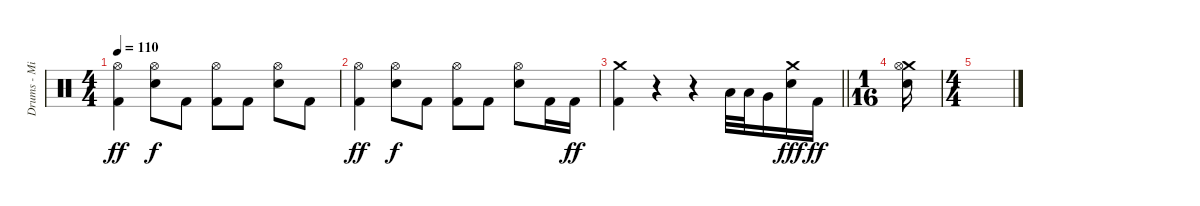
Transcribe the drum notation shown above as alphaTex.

\track ("Drums - Mikko" "Drums - Mi") {instrument percussion}
\staff {score}
\articulation defaults
\ts (4 4)
\tempo 110
\clef neutral
\ks c
("Hi-Hat (open)" "Kick (hit) 2").4{dy ff} ("Hi-Hat (open)" "Snare (hit) 2").8{dy f} "Kick (hit) 2".8 ("Hi-Hat (open)" "Kick (hit) 2").8 "Kick (hit) 2".8 ("Hi-Hat (open)" "Snare (hit) 2").8 "Kick (hit) 2".8 |
("Hi-Hat (open)" "Kick (hit) 2").4{dy ff} ("Hi-Hat (open)" "Snare (hit) 2").8{dy f} "Kick (hit) 2".8 ("Hi-Hat (open)" "Kick (hit) 2").8 "Kick (hit) 2".8 ("Hi-Hat (open)" "Snare (hit) 2").8 "Kick (hit) 2".16 "Kick (hit) 2".16{dy ff} |
\barLineRight lightlight
("Crash medium (hit)" "Kick (hit) 2").4 r.4 r.4 "Low Tom (hit)".32 "Low Tom (hit)".32 "Very Low Tom (hit)".16 ("Crash medium (hit)" "Snare (hit) 2").16{dy fff} "Kick (hit) 2".16{dy ff} |
\ts (1 16)
("Crash medium (hit)" "Hi-Hat (open)" "Snare (hit) 2").16 |
\ts (4 4)
